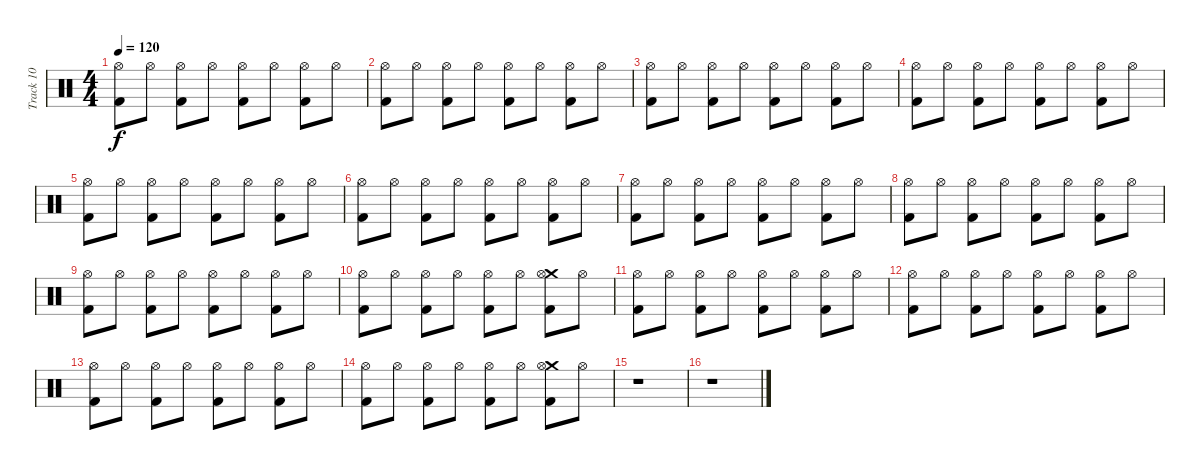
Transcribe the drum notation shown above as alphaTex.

\track ("Track 10" "Track 10") {instrument percussion}
\staff {score}
\articulation defaults
\ts (4 4)
\tempo 120
\clef neutral
\ks c
("Hi-Hat (open)" "Kick (hit) 2").8{dy f} "Hi-Hat (open)".8 ("Hi-Hat (open)" "Kick (hit) 2").8 "Hi-Hat (open)".8 ("Hi-Hat (open)" "Kick (hit) 2").8 "Hi-Hat (open)".8 ("Hi-Hat (open)" "Kick (hit) 2").8 "Hi-Hat (open)".8 |
("Hi-Hat (open)" "Kick (hit) 2").8 "Hi-Hat (open)".8 ("Hi-Hat (open)" "Kick (hit) 2").8 "Hi-Hat (open)".8 ("Hi-Hat (open)" "Kick (hit) 2").8 "Hi-Hat (open)".8 ("Hi-Hat (open)" "Kick (hit) 2").8 "Hi-Hat (open)".8 |
("Hi-Hat (open)" "Kick (hit) 2").8 "Hi-Hat (open)".8 ("Hi-Hat (open)" "Kick (hit) 2").8 "Hi-Hat (open)".8 ("Hi-Hat (open)" "Kick (hit) 2").8 "Hi-Hat (open)".8 ("Hi-Hat (open)" "Kick (hit) 2").8 "Hi-Hat (open)".8 |
("Hi-Hat (open)" "Kick (hit) 2").8 "Hi-Hat (open)".8 ("Hi-Hat (open)" "Kick (hit) 2").8 "Hi-Hat (open)".8 ("Hi-Hat (open)" "Kick (hit) 2").8 "Hi-Hat (open)".8 ("Hi-Hat (open)" "Kick (hit) 2").8 "Hi-Hat (open)".8 |
("Hi-Hat (open)" "Kick (hit) 2").8 "Hi-Hat (open)".8 ("Hi-Hat (open)" "Kick (hit) 2").8 "Hi-Hat (open)".8 ("Hi-Hat (open)" "Kick (hit) 2").8 "Hi-Hat (open)".8 ("Hi-Hat (open)" "Kick (hit) 2").8 "Hi-Hat (open)".8 |
("Hi-Hat (open)" "Kick (hit) 2").8 "Hi-Hat (open)".8 ("Hi-Hat (open)" "Kick (hit) 2").8 "Hi-Hat (open)".8 ("Hi-Hat (open)" "Kick (hit) 2").8 "Hi-Hat (open)".8 ("Hi-Hat (open)" "Kick (hit) 2").8 "Hi-Hat (open)".8 |
("Hi-Hat (open)" "Kick (hit) 2").8 "Hi-Hat (open)".8 ("Hi-Hat (open)" "Kick (hit) 2").8 "Hi-Hat (open)".8 ("Hi-Hat (open)" "Kick (hit) 2").8 "Hi-Hat (open)".8 ("Hi-Hat (open)" "Kick (hit) 2").8 "Hi-Hat (open)".8 |
("Hi-Hat (open)" "Kick (hit) 2").8 "Hi-Hat (open)".8 ("Hi-Hat (open)" "Kick (hit) 2").8 "Hi-Hat (open)".8 ("Hi-Hat (open)" "Kick (hit) 2").8 "Hi-Hat (open)".8 ("Hi-Hat (open)" "Kick (hit) 2").8 "Hi-Hat (open)".8 |
("Hi-Hat (open)" "Kick (hit) 2").8 "Hi-Hat (open)".8 ("Hi-Hat (open)" "Kick (hit) 2").8 "Hi-Hat (open)".8 ("Hi-Hat (open)" "Kick (hit) 2").8 "Hi-Hat (open)".8 ("Hi-Hat (open)" "Kick (hit) 2").8 "Hi-Hat (open)".8 |
("Hi-Hat (open)" "Kick (hit) 2").8 "Hi-Hat (open)".8 ("Hi-Hat (open)" "Kick (hit) 2").8 "Hi-Hat (open)".8 ("Hi-Hat (open)" "Kick (hit) 2").8 "Hi-Hat (open)".8 ("Crash medium (hit)" "Hi-Hat (open)" "Kick (hit) 2").8 "Hi-Hat (open)".8 |
("Hi-Hat (open)" "Kick (hit) 2").8 "Hi-Hat (open)".8 ("Hi-Hat (open)" "Kick (hit) 2").8 "Hi-Hat (open)".8 ("Hi-Hat (open)" "Kick (hit) 2").8 "Hi-Hat (open)".8 ("Hi-Hat (open)" "Kick (hit) 2").8 "Hi-Hat (open)".8 |
("Hi-Hat (open)" "Kick (hit) 2").8 "Hi-Hat (open)".8 ("Hi-Hat (open)" "Kick (hit) 2").8 "Hi-Hat (open)".8 ("Hi-Hat (open)" "Kick (hit) 2").8 "Hi-Hat (open)".8 ("Hi-Hat (open)" "Kick (hit) 2").8 "Hi-Hat (open)".8 |
("Hi-Hat (open)" "Kick (hit) 2").8 "Hi-Hat (open)".8 ("Hi-Hat (open)" "Kick (hit) 2").8 "Hi-Hat (open)".8 ("Hi-Hat (open)" "Kick (hit) 2").8 "Hi-Hat (open)".8 ("Hi-Hat (open)" "Kick (hit) 2").8 "Hi-Hat (open)".8 |
("Hi-Hat (open)" "Kick (hit) 2").8 "Hi-Hat (open)".8 ("Hi-Hat (open)" "Kick (hit) 2").8 "Hi-Hat (open)".8 ("Hi-Hat (open)" "Kick (hit) 2").8 "Hi-Hat (open)".8 ("Crash medium (hit)" "Hi-Hat (open)" "Kick (hit) 2").8 "Hi-Hat (open)".8 |
r.1 |
r.1
